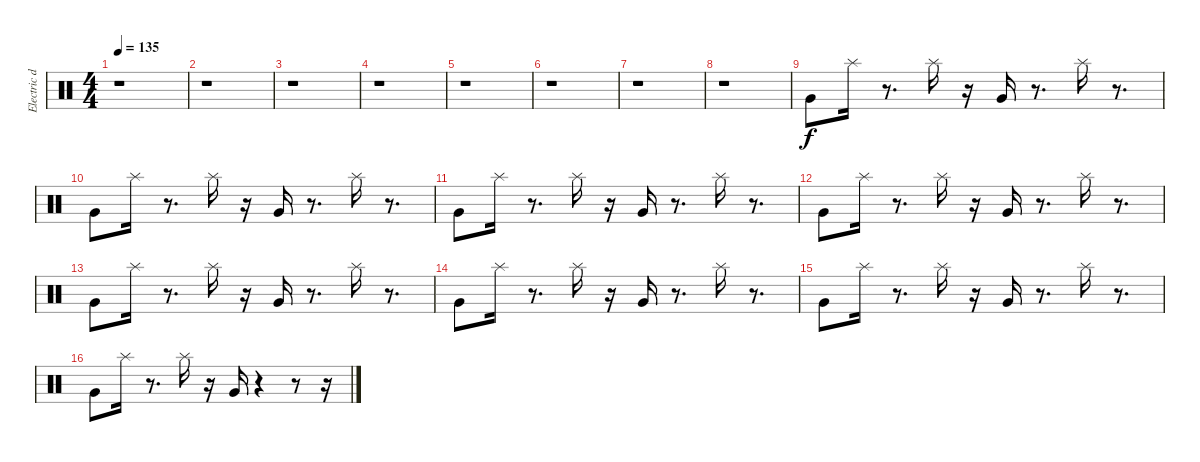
\track ("Electric drums" "Electric d") {instrument percussion}
\staff {score}
\articulation defaults
\ts (4 4)
\tempo 135
\clef neutral
\ks c
r.1{dy f} |
r.1 |
r.1 |
r.1 |
r.1 |
r.1 |
r.1 |
r.1 |
"Very Low Tom (hit)".8 "Splash (hit)".16 r.8{d} "Splash (hit)".16 r.16 "Very Low Tom (hit)".16 r.8{d} "Splash (hit)".16 r.8{d} |
"Very Low Tom (hit)".8 "Splash (hit)".16 r.8{d} "Splash (hit)".16 r.16 "Very Low Tom (hit)".16 r.8{d} "Splash (hit)".16 r.8{d} |
"Very Low Tom (hit)".8 "Splash (hit)".16 r.8{d} "Splash (hit)".16 r.16 "Very Low Tom (hit)".16 r.8{d} "Splash (hit)".16 r.8{d} |
"Very Low Tom (hit)".8 "Splash (hit)".16 r.8{d} "Splash (hit)".16 r.16 "Very Low Tom (hit)".16 r.8{d} "Splash (hit)".16 r.8{d} |
"Very Low Tom (hit)".8 "Splash (hit)".16 r.8{d} "Splash (hit)".16 r.16 "Very Low Tom (hit)".16 r.8{d} "Splash (hit)".16 r.8{d} |
"Very Low Tom (hit)".8 "Splash (hit)".16 r.8{d} "Splash (hit)".16 r.16 "Very Low Tom (hit)".16 r.8{d} "Splash (hit)".16 r.8{d} |
"Very Low Tom (hit)".8 "Splash (hit)".16 r.8{d} "Splash (hit)".16 r.16 "Very Low Tom (hit)".16 r.8{d} "Splash (hit)".16 r.8{d} |
"Very Low Tom (hit)".8 "Splash (hit)".16 r.8{d} "Splash (hit)".16 r.16 "Very Low Tom (hit)".16 r.4 r.8 r.16
